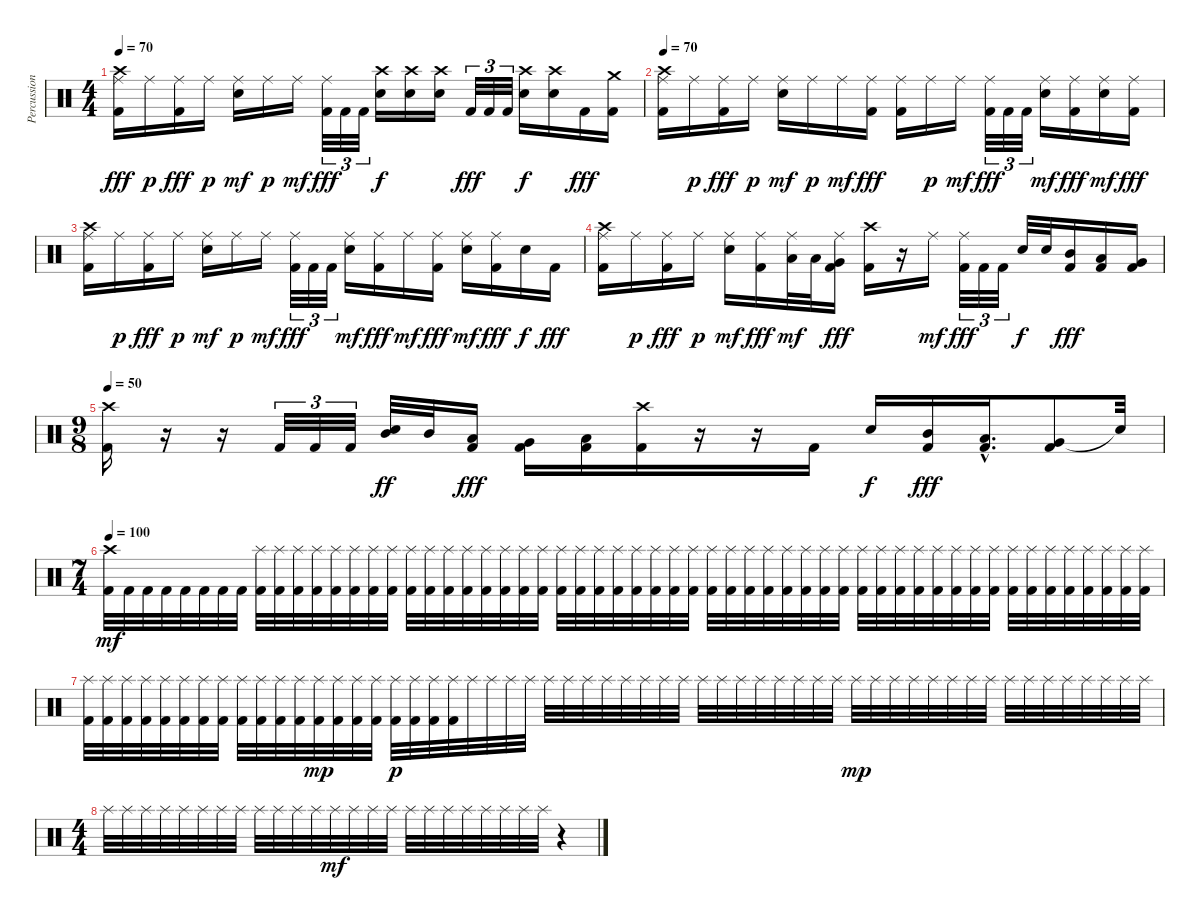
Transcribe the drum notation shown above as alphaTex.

\track ("Percussion" "Percussion") {instrument percussion}
\staff {score}
\articulation defaults
\ts (4 4)
\tempo 70
\clef neutral
\ks c
("Crash high (hit)" "Ride (middle)" "Kick (hit) 2").16{dy fff} "Ride (middle)".16{dy p} ("Ride (middle)" "Kick (hit) 2").16{dy fff} "Ride (middle)".16{dy p} ("Ride (middle)" "Snare (hit) 2").16{dy mf} "Ride (middle)".16{dy p} "Ride (middle)".16{dy mf} ("Ride (middle)" "Kick (hit) 2").32{tu (3 2) dy fff} "Kick (hit) 2".32{tu (3 2)} "Kick (hit) 2".32{tu (3 2)} ("Crash high (hit)" "Snare (hit) 2").16{dy f} ("Crash high (hit)" "Snare (hit) 2").16 ("Crash high (hit)" "Snare (hit) 2").16 "Kick (hit) 2".32{tu (3 2) dy fff} "Kick (hit) 2".32{tu (3 2)} "Kick (hit) 2".32{tu (3 2)} ("Crash high (hit)" "Snare (hit) 2").16{dy f} ("Crash high (hit)" "Snare (hit) 2").16 "Kick (hit) 2".16{dy fff} ("Crash medium (hit)" "Kick (hit) 2").16 |
\tempo 70
("Crash high (hit)" "Ride (middle)" "Kick (hit) 2").16 "Ride (middle)".16{dy p} ("Ride (middle)" "Kick (hit) 2").16{dy fff} "Ride (middle)".16{dy p} ("Ride (middle)" "Snare (hit) 2").16{dy mf} "Ride (middle)".16{dy p} "Ride (middle)".16{dy mf} ("Ride (middle)" "Kick (hit) 2").16{dy fff} ("Ride (middle)" "Kick (hit) 2").16 "Ride (middle)".16{dy p} "Ride (middle)".16{dy mf} ("Ride (middle)" "Kick (hit) 2").32{tu (3 2) dy fff} "Kick (hit) 2".32{tu (3 2)} "Kick (hit) 2".32{tu (3 2)} ("Ride (middle)" "Snare (hit) 2").16{dy mf} ("Ride (middle)" "Kick (hit) 2").16{dy fff} ("Ride (middle)" "Snare (hit) 2").16{dy mf} ("Ride (middle)" "Kick (hit) 2").16{dy fff} |
("Crash high (hit)" "Ride (middle)" "Kick (hit) 2").16 "Ride (middle)".16{dy p} ("Ride (middle)" "Kick (hit) 2").16{dy fff} "Ride (middle)".16{dy p} ("Ride (middle)" "Snare (hit) 2").16{dy mf} "Ride (middle)".16{dy p} "Ride (middle)".16{dy mf} ("Ride (middle)" "Kick (hit) 2").32{tu (3 2) dy fff} "Kick (hit) 2".32{tu (3 2)} "Kick (hit) 2".32{tu (3 2)} ("Ride (middle)" "Snare (hit) 2").16{dy mf} ("Ride (middle)" "Kick (hit) 2").16{dy fff} "Ride (middle)".16{dy mf} ("Ride (middle)" "Kick (hit) 2").16{dy fff} ("Ride (middle)" "Snare (hit) 2").16{dy mf} ("Ride (middle)" "Kick (hit) 2").16{dy fff} "Snare (hit) 2".16{dy f} "Kick (hit) 2".16{dy fff} |
("Crash high (hit)" "Ride (middle)" "Kick (hit) 2").16 "Ride (middle)".16{dy p} ("Ride (middle)" "Kick (hit) 2").16{dy fff} "Ride (middle)".16{dy p} ("Ride (middle)" "Snare (hit) 2").16{dy mf} ("Ride (middle)" "Kick (hit) 2").16{dy fff} ("Ride (middle)" "Low Tom (hit)").32{dy mf} "Low Tom (hit)".32 ("Ride (middle)" "Very Low Tom (hit)" "Kick (hit) 2").16{dy fff} ("Crash high (hit)" "Kick (hit) 2").16 r.16 "Ride (middle)".16{dy mf} ("Ride (middle)" "Kick (hit) 2").32{tu (3 2) dy fff} "Kick (hit) 2".32{tu (3 2)} "Kick (hit) 2".32{tu (3 2)} "Snare (hit) 2".32{dy f} "Snare (hit) 2".32 ("Mid Tom (hit)" "Kick (hit) 2").16{dy fff} ("Low Tom (hit)" "Kick (hit) 2").16 ("Very Low Tom (hit)" "Kick (hit) 2").16 |
\ts (9 8)
\tempo 50
("Crash high (hit)" "Kick (hit) 2").16 r.16 r.16 "Kick (hit) 2".32{tu (3 2)} "Kick (hit) 2".32{tu (3 2)} "Kick (hit) 2".32{tu (3 2)} ("Mid Tom (hit)" "Snare (hit) 2").32{dy ff} "Mid Tom (hit)".32 ("Low Tom (hit)" "Kick (hit) 2").16{dy fff} ("Very Low Tom (hit)" "Kick (hit) 2").16 ("Low Floor Tom (hit)" "Kick (hit) 2").16 ("Crash high (hit)" "Kick (hit) 2").16 r.16 r.16 "Kick (hit) 2".16 "Snare (hit) 2".16{dy f} ("Mid Tom (hit)" "Kick (hit) 2").16{dy fff} ("Low Tom (hit)"{hac} "Kick (hit) 2"{hac}).16{d} ("Very Low Tom (hit)" "Kick (hit) 2").8 "Snare (hit)"{t}.32 |
\ts (7 4)
\section ("" "")
\tempo 100
("Crash high (hit)" "Kick (hit) 2").32{dy mf} "Kick (hit) 2".32 "Kick (hit) 2".32 "Kick (hit) 2".32 "Kick (hit) 2".32 "Kick (hit) 2".32 "Kick (hit) 2".32 "Kick (hit) 2".32 ("Splash (hit)" "Kick (hit) 2").32 ("Splash (hit)" "Kick (hit) 2").32 ("Splash (hit)" "Kick (hit) 2").32 ("Splash (hit)" "Kick (hit) 2").32 ("Splash (hit)" "Kick (hit) 2").32 ("Splash (hit)" "Kick (hit) 2").32 ("Splash (hit)" "Kick (hit) 2").32 ("Splash (hit)" "Kick (hit) 2").32 ("Splash (hit)" "Kick (hit) 2").32 ("Splash (hit)" "Kick (hit) 2").32 ("Splash (hit)" "Kick (hit) 2").32 ("Splash (hit)" "Kick (hit) 2").32 ("Splash (hit)" "Kick (hit) 2").32 ("Splash (hit)" "Kick (hit) 2").32 ("Splash (hit)" "Kick (hit) 2").32 ("Splash (hit)" "Kick (hit) 2").32 ("Splash (hit)" "Kick (hit) 2").32 ("Splash (hit)" "Kick (hit) 2").32 ("Splash (hit)" "Kick (hit) 2").32 ("Splash (hit)" "Kick (hit) 2").32 ("Splash (hit)" "Kick (hit) 2").32 ("Splash (hit)" "Kick (hit) 2").32 ("Splash (hit)" "Kick (hit) 2").32 ("Splash (hit)" "Kick (hit) 2").32 ("Splash (hit)" "Kick (hit) 2").32 ("Splash (hit)" "Kick (hit) 2").32 ("Splash (hit)" "Kick (hit) 2").32 ("Splash (hit)" "Kick (hit) 2").32 ("Splash (hit)" "Kick (hit) 2").32 ("Splash (hit)" "Kick (hit) 2").32 ("Splash (hit)" "Kick (hit) 2").32 ("Splash (hit)" "Kick (hit) 2").32 ("Splash (hit)" "Kick (hit) 2").32 ("Splash (hit)" "Kick (hit) 2").32 ("Splash (hit)" "Kick (hit) 2").32 ("Splash (hit)" "Kick (hit) 2").32 ("Splash (hit)" "Kick (hit) 2").32 ("Splash (hit)" "Kick (hit) 2").32 ("Splash (hit)" "Kick (hit) 2").32 ("Splash (hit)" "Kick (hit) 2").32 ("Splash (hit)" "Kick (hit) 2").32 ("Splash (hit)" "Kick (hit) 2").32 ("Splash (hit)" "Kick (hit) 2").32 ("Splash (hit)" "Kick (hit) 2").32 ("Splash (hit)" "Kick (hit) 2").32 ("Splash (hit)" "Kick (hit) 2").32 ("Splash (hit)" "Kick (hit) 2").32 ("Splash (hit)" "Kick (hit) 2").32 |
("Splash (hit)" "Kick (hit) 2").32 ("Splash (hit)" "Kick (hit) 2").32 ("Splash (hit)" "Kick (hit) 2").32 ("Splash (hit)" "Kick (hit) 2").32 ("Splash (hit)" "Kick (hit) 2").32 ("Splash (hit)" "Kick (hit) 2").32 ("Splash (hit)" "Kick (hit) 2").32 ("Splash (hit)" "Kick (hit) 2").32 ("Splash (hit)" "Kick (hit) 2").32 ("Splash (hit)" "Kick (hit) 2").32 ("Splash (hit)" "Kick (hit) 2").32 ("Splash (hit)" "Kick (hit) 2").32 ("Splash (hit)" "Kick (hit) 2").32{dy mp} ("Splash (hit)" "Kick (hit) 2").32 ("Splash (hit)" "Kick (hit) 2").32 ("Splash (hit)" "Kick (hit) 2").32 ("Splash (hit)" "Kick (hit) 2").32{dy p} ("Splash (hit)" "Kick (hit) 2").32 ("Splash (hit)" "Kick (hit) 2").32 ("Splash (hit)" "Kick (hit) 2").32 "Splash (hit)".32 "Splash (hit)".32 "Splash (hit)".32 "Splash (hit)".32 "Splash (hit)".32 "Splash (hit)".32 "Splash (hit)".32 "Splash (hit)".32 "Splash (hit)".32 "Splash (hit)".32 "Splash (hit)".32 "Splash (hit)".32 "Splash (hit)".32 "Splash (hit)".32 "Splash (hit)".32 "Splash (hit)".32 "Splash (hit)".32 "Splash (hit)".32 "Splash (hit)".32 "Splash (hit)".32 "Splash (hit)".32{dy mp} "Splash (hit)".32 "Splash (hit)".32 "Splash (hit)".32 "Splash (hit)".32 "Splash (hit)".32 "Splash (hit)".32 "Splash (hit)".32 "Splash (hit)".32 "Splash (hit)".32 "Splash (hit)".32 "Splash (hit)".32 "Splash (hit)".32 "Splash (hit)".32 "Splash (hit)".32 "Splash (hit)".32 |
\ts (4 4)
"Splash (hit)".32 "Splash (hit)".32 "Splash (hit)".32 "Splash (hit)".32 "Splash (hit)".32 "Splash (hit)".32 "Splash (hit)".32 "Splash (hit)".32 "Splash (hit)".32 "Splash (hit)".32 "Splash (hit)".32 "Splash (hit)".32 "Splash (hit)".32{dy mf} "Splash (hit)".32 "Splash (hit)".32 "Splash (hit)".32 "Splash (hit)".32 "Splash (hit)".32 "Splash (hit)".32 "Splash (hit)".32 "Splash (hit)".32 "Splash (hit)".32 "Splash (hit)".32 "Splash (hit)".32 r.4
